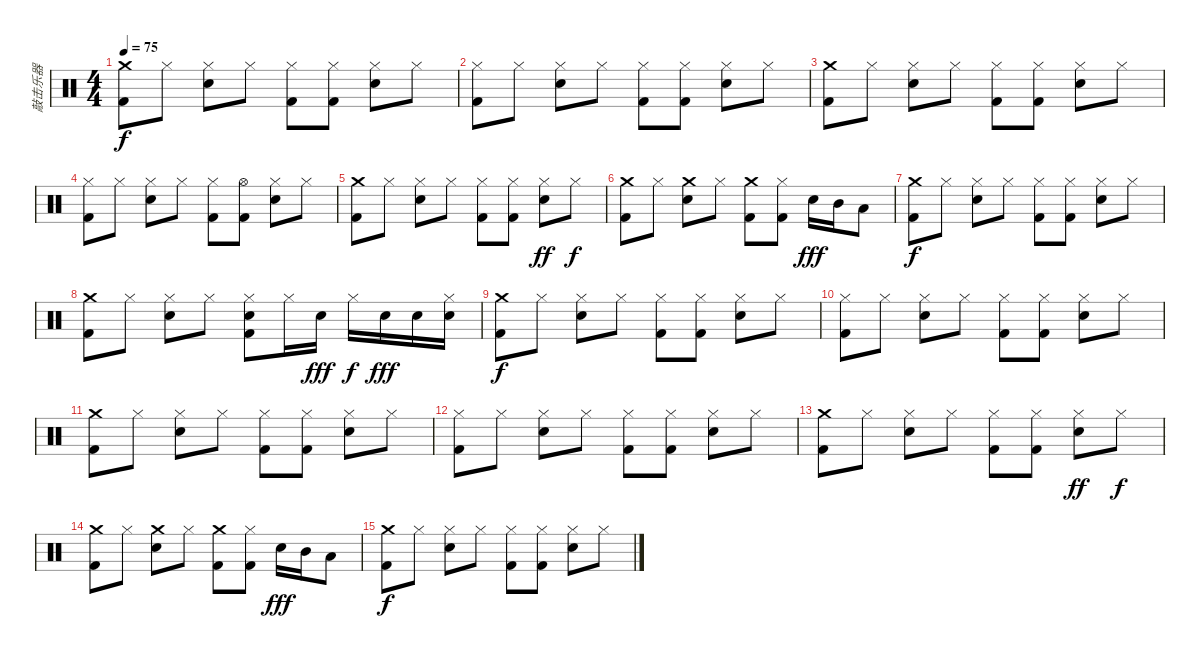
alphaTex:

\track ("敲击乐器" "敲击乐器") {instrument percussion}
\staff {score}
\articulation defaults
\ts (4 4)
\tempo 75
\clef neutral
\ks c
("Crash medium (hit)" "Kick (hit) 2").8{dy f} "Hi-Hat (closed)".8 ("Hi-Hat (closed)" "Electric Snare (hit)").8 "Hi-Hat (closed)".8 ("Hi-Hat (closed)" "Kick (hit) 2").8 ("Hi-Hat (closed)" "Kick (hit) 2").8 ("Hi-Hat (closed)" "Electric Snare (hit)").8 "Hi-Hat (closed)".8 |
("Hi-Hat (closed)" "Kick (hit) 2").8 "Hi-Hat (closed)".8 ("Hi-Hat (closed)" "Electric Snare (hit)").8 "Hi-Hat (closed)".8 ("Hi-Hat (closed)" "Kick (hit) 2").8 ("Hi-Hat (closed)" "Kick (hit) 2").8 ("Hi-Hat (closed)" "Electric Snare (hit)").8 "Hi-Hat (closed)".8 |
("Crash medium (hit)" "Kick (hit) 2").8 "Hi-Hat (closed)".8 ("Hi-Hat (closed)" "Electric Snare (hit)").8 "Hi-Hat (closed)".8 ("Hi-Hat (closed)" "Kick (hit) 2").8 ("Hi-Hat (closed)" "Kick (hit) 2").8 ("Hi-Hat (closed)" "Electric Snare (hit)").8 "Hi-Hat (closed)".8 |
("Hi-Hat (closed)" "Kick (hit) 2").8 "Hi-Hat (closed)".8 ("Hi-Hat (closed)" "Electric Snare (hit)").8 "Hi-Hat (closed)".8 ("Hi-Hat (closed)" "Kick (hit) 2").8 ("Hi-Hat (open)" "Kick (hit) 2").8 ("Hi-Hat (closed)" "Electric Snare (hit)").8 "Hi-Hat (closed)".8 |
("Crash medium (hit)" "Kick (hit) 2").8 "Hi-Hat (closed)".8 ("Hi-Hat (closed)" "Electric Snare (hit)").8 "Hi-Hat (closed)".8 ("Hi-Hat (closed)" "Kick (hit) 2").8 ("Hi-Hat (closed)" "Kick (hit) 2").8 ("Hi-Hat (closed)" "Electric Snare (hit)").8{dy ff} "Hi-Hat (closed)".8{dy f} |
("Crash medium (hit)" "Kick (hit) 2").8 "Hi-Hat (closed)".8 ("Crash medium (hit)" "Electric Snare (hit)").8 "Hi-Hat (closed)".8 ("Crash medium (hit)" "Kick (hit) 2").8 ("Hi-Hat (closed)" "Kick (hit) 2").8 "Electric Snare (hit)".16{dy fff} "Mid Tom (hit)".16 "Low Tom (hit)".8 |
("Crash medium (hit)" "Kick (hit) 2").8{dy f} "Hi-Hat (closed)".8 ("Hi-Hat (closed)" "Electric Snare (hit)").8 "Hi-Hat (closed)".8 ("Hi-Hat (closed)" "Kick (hit) 2").8 ("Hi-Hat (closed)" "Kick (hit) 2").8 ("Hi-Hat (closed)" "Electric Snare (hit)").8 "Hi-Hat (closed)".8 |
("Crash medium (hit)" "Kick (hit) 2").8 "Hi-Hat (closed)".8 ("Hi-Hat (closed)" "Electric Snare (hit)").8 "Hi-Hat (closed)".8 ("Hi-Hat (closed)" "Electric Snare (hit)" "Kick (hit) 2").8 "Hi-Hat (closed)".16 "Electric Snare (hit)".16{dy fff} "Hi-Hat (closed)".16{dy f} "Electric Snare (hit)".16{dy fff} "Electric Snare (hit)".16 ("Hi-Hat (closed)" "Electric Snare (hit)").16 |
("Crash medium (hit)" "Kick (hit) 2").8{dy f} "Hi-Hat (closed)".8 ("Hi-Hat (closed)" "Electric Snare (hit)").8 "Hi-Hat (closed)".8 ("Hi-Hat (closed)" "Kick (hit) 2").8 ("Hi-Hat (closed)" "Kick (hit) 2").8 ("Hi-Hat (closed)" "Electric Snare (hit)").8 "Hi-Hat (closed)".8 |
("Hi-Hat (closed)" "Kick (hit) 2").8 "Hi-Hat (closed)".8 ("Hi-Hat (closed)" "Electric Snare (hit)").8 "Hi-Hat (closed)".8 ("Hi-Hat (closed)" "Kick (hit) 2").8 ("Hi-Hat (closed)" "Kick (hit) 2").8 ("Hi-Hat (closed)" "Electric Snare (hit)").8 "Hi-Hat (closed)".8 |
("Crash medium (hit)" "Kick (hit) 2").8{volume 15} "Hi-Hat (closed)".8 ("Hi-Hat (closed)" "Electric Snare (hit)").8{volume 14} "Hi-Hat (closed)".8 ("Hi-Hat (closed)" "Kick (hit) 2").8{volume 13} ("Hi-Hat (closed)" "Kick (hit) 2").8 ("Hi-Hat (closed)" "Electric Snare (hit)").8{volume 12} "Hi-Hat (closed)".8 |
("Hi-Hat (closed)" "Kick (hit) 2").8{volume 11} "Hi-Hat (closed)".8 ("Hi-Hat (closed)" "Electric Snare (hit)").8{volume 10} "Hi-Hat (closed)".8 ("Hi-Hat (closed)" "Kick (hit) 2").8{volume 9} ("Hi-Hat (closed)" "Kick (hit) 2").8 ("Hi-Hat (closed)" "Electric Snare (hit)").8{volume 8} "Hi-Hat (closed)".8 |
("Crash medium (hit)" "Kick (hit) 2").8{volume 7} "Hi-Hat (closed)".8 ("Hi-Hat (closed)" "Electric Snare (hit)").8{volume 6} "Hi-Hat (closed)".8 ("Hi-Hat (closed)" "Kick (hit) 2").8{volume 5} ("Hi-Hat (closed)" "Kick (hit) 2").8 ("Hi-Hat (closed)" "Electric Snare (hit)").8{dy ff volume 4} "Hi-Hat (closed)".8{dy f} |
("Crash medium (hit)" "Kick (hit) 2").8{volume 3} "Hi-Hat (closed)".8 ("Crash medium (hit)" "Electric Snare (hit)").8{volume 2} "Hi-Hat (closed)".8 ("Crash medium (hit)" "Kick (hit) 2").8{volume 1} ("Hi-Hat (closed)" "Kick (hit) 2").8 "Electric Snare (hit)".16{dy fff volume 0} "Mid Tom (hit)".16 "Low Tom (hit)".8 |
("Crash medium (hit)" "Kick (hit) 2").8{dy f} "Hi-Hat (closed)".8 ("Hi-Hat (closed)" "Electric Snare (hit)").8 "Hi-Hat (closed)".8 ("Hi-Hat (closed)" "Kick (hit) 2").8 ("Hi-Hat (closed)" "Kick (hit) 2").8 ("Hi-Hat (closed)" "Electric Snare (hit)").8 "Hi-Hat (closed)".8
